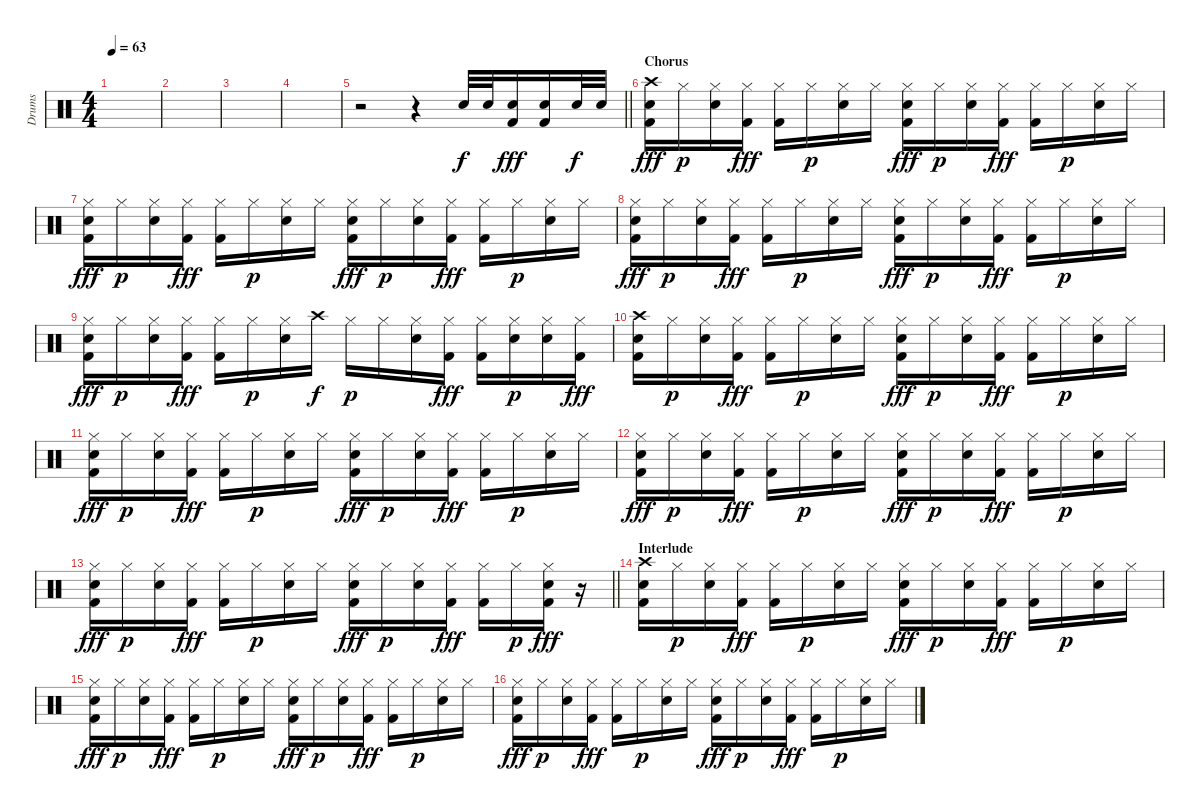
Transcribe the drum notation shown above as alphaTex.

\track ("Drums" "Drums") {instrument percussion}
\staff {score}
\articulation defaults
\ts (4 4)
\tempo 63
\clef neutral
\ks c
|
|
|
|
\barLineRight lightlight
r.2 r.4 "Electric Snare (hit)".32 "Electric Snare (hit)".32 ("Electric Snare (hit)" "Kick (hit) 2").16{dy fff} ("Electric Snare (hit)" "Kick (hit) 2").16 "Electric Snare (hit)".32{dy f} "Electric Snare (hit)".32 |
\section ("" "Chorus")
("Electric Snare (hit)" "Crash high (hit)" "Kick (hit) 2").16{dy fff} "Hi-Hat (closed)".16{dy p} ("Electric Snare (hit)" "Hi-Hat (closed)").16 ("Hi-Hat (closed)" "Kick (hit) 2").16{dy fff} ("Hi-Hat (closed)" "Kick (hit) 2").16 "Hi-Hat (closed)".16{dy p} ("Electric Snare (hit)" "Hi-Hat (closed)").16 "Hi-Hat (closed)".16 ("Electric Snare (hit)" "Hi-Hat (closed)" "Kick (hit) 2").16{dy fff} "Hi-Hat (closed)".16{dy p} ("Electric Snare (hit)" "Hi-Hat (closed)").16 ("Hi-Hat (closed)" "Kick (hit) 2").16{dy fff} ("Hi-Hat (closed)" "Kick (hit) 2").16 "Hi-Hat (closed)".16{dy p} ("Electric Snare (hit)" "Hi-Hat (closed)").16 "Hi-Hat (closed)".16 |
("Electric Snare (hit)" "Hi-Hat (closed)" "Kick (hit) 2").16{dy fff} "Hi-Hat (closed)".16{dy p} ("Electric Snare (hit)" "Hi-Hat (closed)").16 ("Hi-Hat (closed)" "Kick (hit) 2").16{dy fff} ("Hi-Hat (closed)" "Kick (hit) 2").16 "Hi-Hat (closed)".16{dy p} ("Electric Snare (hit)" "Hi-Hat (closed)").16 "Hi-Hat (closed)".16 ("Electric Snare (hit)" "Hi-Hat (closed)" "Kick (hit) 2").16{dy fff} "Hi-Hat (closed)".16{dy p} ("Electric Snare (hit)" "Hi-Hat (closed)").16 ("Hi-Hat (closed)" "Kick (hit) 2").16{dy fff} ("Hi-Hat (closed)" "Kick (hit) 2").16 "Hi-Hat (closed)".16{dy p} ("Electric Snare (hit)" "Hi-Hat (closed)").16 "Hi-Hat (closed)".16 |
("Electric Snare (hit)" "Hi-Hat (closed)" "Kick (hit) 2").16{dy fff} "Hi-Hat (closed)".16{dy p} ("Electric Snare (hit)" "Hi-Hat (closed)").16 ("Hi-Hat (closed)" "Kick (hit) 2").16{dy fff} ("Hi-Hat (closed)" "Kick (hit) 2").16 "Hi-Hat (closed)".16{dy p} ("Electric Snare (hit)" "Hi-Hat (closed)").16 "Hi-Hat (closed)".16 ("Electric Snare (hit)" "Hi-Hat (closed)" "Kick (hit) 2").16{dy fff} "Hi-Hat (closed)".16{dy p} ("Electric Snare (hit)" "Hi-Hat (closed)").16 ("Hi-Hat (closed)" "Kick (hit) 2").16{dy fff} ("Hi-Hat (closed)" "Kick (hit) 2").16 "Hi-Hat (closed)".16{dy p} ("Electric Snare (hit)" "Hi-Hat (closed)").16 "Hi-Hat (closed)".16 |
("Electric Snare (hit)" "Hi-Hat (closed)" "Kick (hit) 2").16{dy fff} "Hi-Hat (closed)".16{dy p} ("Electric Snare (hit)" "Hi-Hat (closed)").16 ("Hi-Hat (closed)" "Kick (hit) 2").16{dy fff} ("Hi-Hat (closed)" "Kick (hit) 2").16 "Hi-Hat (closed)".16{dy p} ("Electric Snare (hit)" "Hi-Hat (closed)").16 "Crash high (hit)".16{dy f} "Hi-Hat (closed)".16{dy p} "Hi-Hat (closed)".16 ("Electric Snare (hit)" "Hi-Hat (closed)").16 ("Hi-Hat (closed)" "Kick (hit) 2").16{dy fff} ("Hi-Hat (closed)" "Kick (hit) 2").16 ("Electric Snare (hit)" "Hi-Hat (closed)").16{dy p} ("Electric Snare (hit)" "Hi-Hat (closed)").16 ("Hi-Hat (closed)" "Kick (hit) 2").16{dy fff} |
("Electric Snare (hit)" "Crash high (hit)" "Kick (hit) 2").16 "Hi-Hat (closed)".16{dy p} ("Electric Snare (hit)" "Hi-Hat (closed)").16 ("Hi-Hat (closed)" "Kick (hit) 2").16{dy fff} ("Hi-Hat (closed)" "Kick (hit) 2").16 "Hi-Hat (closed)".16{dy p} ("Electric Snare (hit)" "Hi-Hat (closed)").16 "Hi-Hat (closed)".16 ("Electric Snare (hit)" "Hi-Hat (closed)" "Kick (hit) 2").16{dy fff} "Hi-Hat (closed)".16{dy p} ("Electric Snare (hit)" "Hi-Hat (closed)").16 ("Hi-Hat (closed)" "Kick (hit) 2").16{dy fff} ("Hi-Hat (closed)" "Kick (hit) 2").16 "Hi-Hat (closed)".16{dy p} ("Electric Snare (hit)" "Hi-Hat (closed)").16 "Hi-Hat (closed)".16 |
("Electric Snare (hit)" "Hi-Hat (closed)" "Kick (hit) 2").16{dy fff} "Hi-Hat (closed)".16{dy p} ("Electric Snare (hit)" "Hi-Hat (closed)").16 ("Hi-Hat (closed)" "Kick (hit) 2").16{dy fff} ("Hi-Hat (closed)" "Kick (hit) 2").16 "Hi-Hat (closed)".16{dy p} ("Electric Snare (hit)" "Hi-Hat (closed)").16 "Hi-Hat (closed)".16 ("Electric Snare (hit)" "Hi-Hat (closed)" "Kick (hit) 2").16{dy fff} "Hi-Hat (closed)".16{dy p} ("Electric Snare (hit)" "Hi-Hat (closed)").16 ("Hi-Hat (closed)" "Kick (hit) 2").16{dy fff} ("Hi-Hat (closed)" "Kick (hit) 2").16 "Hi-Hat (closed)".16{dy p} ("Electric Snare (hit)" "Hi-Hat (closed)").16 "Hi-Hat (closed)".16 |
("Electric Snare (hit)" "Hi-Hat (closed)" "Kick (hit) 2").16{dy fff} "Hi-Hat (closed)".16{dy p} ("Electric Snare (hit)" "Hi-Hat (closed)").16 ("Hi-Hat (closed)" "Kick (hit) 2").16{dy fff} ("Hi-Hat (closed)" "Kick (hit) 2").16 "Hi-Hat (closed)".16{dy p} ("Electric Snare (hit)" "Hi-Hat (closed)").16 "Hi-Hat (closed)".16 ("Electric Snare (hit)" "Hi-Hat (closed)" "Kick (hit) 2").16{dy fff} "Hi-Hat (closed)".16{dy p} ("Electric Snare (hit)" "Hi-Hat (closed)").16 ("Hi-Hat (closed)" "Kick (hit) 2").16{dy fff} ("Hi-Hat (closed)" "Kick (hit) 2").16 "Hi-Hat (closed)".16{dy p} ("Electric Snare (hit)" "Hi-Hat (closed)").16 "Hi-Hat (closed)".16 |
\barLineRight lightlight
("Electric Snare (hit)" "Hi-Hat (closed)" "Kick (hit) 2").16{dy fff} "Hi-Hat (closed)".16{dy p} ("Electric Snare (hit)" "Hi-Hat (closed)").16 ("Hi-Hat (closed)" "Kick (hit) 2").16{dy fff} ("Hi-Hat (closed)" "Kick (hit) 2").16 "Hi-Hat (closed)".16{dy p} ("Electric Snare (hit)" "Hi-Hat (closed)").16 "Hi-Hat (closed)".16 ("Electric Snare (hit)" "Hi-Hat (closed)" "Kick (hit) 2").16{dy fff} "Hi-Hat (closed)".16{dy p} ("Electric Snare (hit)" "Hi-Hat (closed)").16 ("Hi-Hat (closed)" "Kick (hit) 2").16{dy fff} ("Hi-Hat (closed)" "Kick (hit) 2").16 "Hi-Hat (closed)".16{dy p} ("Electric Snare (hit)" "Hi-Hat (closed)" "Kick (hit) 2").16{dy fff} r.16 |
\section ("" "Interlude")
("Electric Snare (hit)" "Crash high (hit)" "Kick (hit) 2").16 "Hi-Hat (closed)".16{dy p} ("Electric Snare (hit)" "Hi-Hat (closed)").16 ("Hi-Hat (closed)" "Kick (hit) 2").16{dy fff} ("Hi-Hat (closed)" "Kick (hit) 2").16 "Hi-Hat (closed)".16{dy p} ("Electric Snare (hit)" "Hi-Hat (closed)").16 "Hi-Hat (closed)".16 ("Electric Snare (hit)" "Hi-Hat (closed)" "Kick (hit) 2").16{dy fff} "Hi-Hat (closed)".16{dy p} ("Electric Snare (hit)" "Hi-Hat (closed)").16 ("Hi-Hat (closed)" "Kick (hit) 2").16{dy fff} ("Hi-Hat (closed)" "Kick (hit) 2").16 "Hi-Hat (closed)".16{dy p} ("Electric Snare (hit)" "Hi-Hat (closed)").16 "Hi-Hat (closed)".16 |
("Electric Snare (hit)" "Hi-Hat (closed)" "Kick (hit) 2").16{dy fff} "Hi-Hat (closed)".16{dy p} ("Electric Snare (hit)" "Hi-Hat (closed)").16 ("Hi-Hat (closed)" "Kick (hit) 2").16{dy fff} ("Hi-Hat (closed)" "Kick (hit) 2").16 "Hi-Hat (closed)".16{dy p} ("Electric Snare (hit)" "Hi-Hat (closed)").16 "Hi-Hat (closed)".16 ("Electric Snare (hit)" "Hi-Hat (closed)" "Kick (hit) 2").16{dy fff} "Hi-Hat (closed)".16{dy p} ("Electric Snare (hit)" "Hi-Hat (closed)").16 ("Hi-Hat (closed)" "Kick (hit) 2").16{dy fff} ("Hi-Hat (closed)" "Kick (hit) 2").16 "Hi-Hat (closed)".16{dy p} ("Electric Snare (hit)" "Hi-Hat (closed)").16 "Hi-Hat (closed)".16 |
("Electric Snare (hit)" "Hi-Hat (closed)" "Kick (hit) 2").16{dy fff} "Hi-Hat (closed)".16{dy p} ("Electric Snare (hit)" "Hi-Hat (closed)").16 ("Hi-Hat (closed)" "Kick (hit) 2").16{dy fff} ("Hi-Hat (closed)" "Kick (hit) 2").16 "Hi-Hat (closed)".16{dy p} ("Electric Snare (hit)" "Hi-Hat (closed)").16 "Hi-Hat (closed)".16 ("Electric Snare (hit)" "Hi-Hat (closed)" "Kick (hit) 2").16{dy fff} "Hi-Hat (closed)".16{dy p} ("Electric Snare (hit)" "Hi-Hat (closed)").16 ("Hi-Hat (closed)" "Kick (hit) 2").16{dy fff} ("Hi-Hat (closed)" "Kick (hit) 2").16 "Hi-Hat (closed)".16{dy p} ("Electric Snare (hit)" "Hi-Hat (closed)").16 "Hi-Hat (closed)".16
